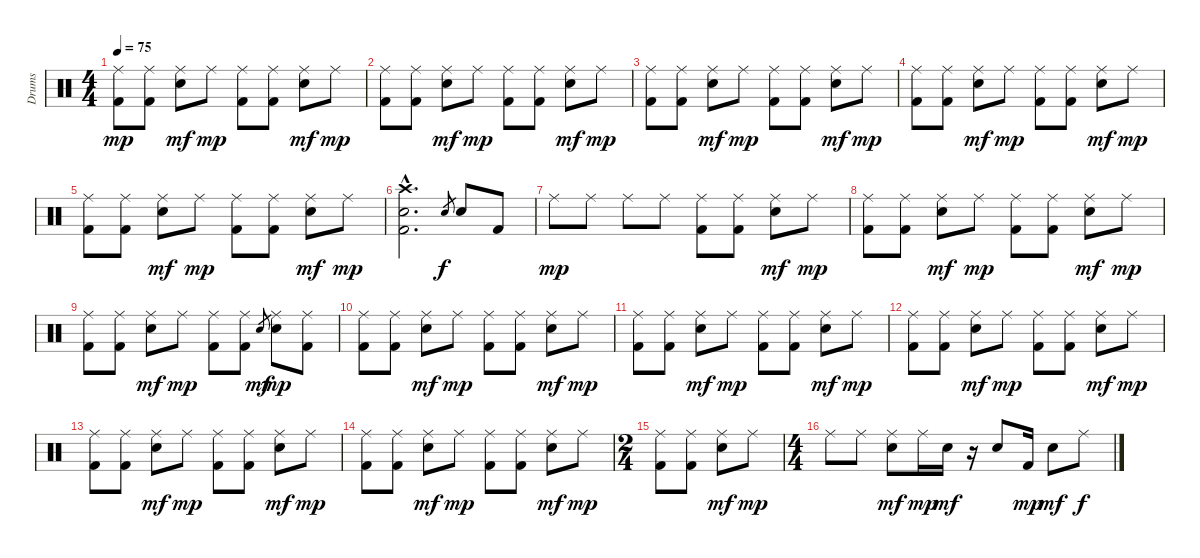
\track ("Drums" "Drums") {instrument percussion}
\staff {score}
\articulation defaults
\ts (4 4)
\tempo 75
\clef neutral
\ks c
("Ride (middle)" "Kick (hit) 2").8{dy mp} ("Ride (middle)" "Kick (hit) 2").8 ("Ride (middle)" "Electric Snare (hit)").8{dy mf} "Ride (middle)".8{dy mp} ("Ride (middle)" "Kick (hit) 2").8 ("Ride (middle)" "Kick (hit) 2").8 ("Ride (middle)" "Electric Snare (hit)").8{dy mf} "Ride (middle)".8{dy mp} |
("Ride (middle)" "Kick (hit) 2").8 ("Ride (middle)" "Kick (hit) 2").8 ("Ride (middle)" "Electric Snare (hit)").8{dy mf} "Ride (middle)".8{dy mp} ("Ride (middle)" "Kick (hit) 2").8 ("Ride (middle)" "Kick (hit) 2").8 ("Ride (middle)" "Electric Snare (hit)").8{dy mf} "Ride (middle)".8{dy mp} |
("Ride (middle)" "Kick (hit) 2").8 ("Ride (middle)" "Kick (hit) 2").8 ("Ride (middle)" "Electric Snare (hit)").8{dy mf} "Ride (middle)".8{dy mp} ("Ride (middle)" "Kick (hit) 2").8 ("Ride (middle)" "Kick (hit) 2").8 ("Ride (middle)" "Electric Snare (hit)").8{dy mf} "Ride (middle)".8{dy mp} |
("Ride (middle)" "Kick (hit) 2").8 ("Ride (middle)" "Kick (hit) 2").8 ("Ride (middle)" "Electric Snare (hit)").8{dy mf} "Ride (middle)".8{dy mp} ("Ride (middle)" "Kick (hit) 2").8 ("Ride (middle)" "Kick (hit) 2").8 ("Ride (middle)" "Electric Snare (hit)").8{dy mf} "Ride (middle)".8{dy mp} |
("Ride (middle)" "Kick (hit) 2").8 ("Ride (middle)" "Kick (hit) 2").8 ("Ride (middle)" "Electric Snare (hit)").8{dy mf} "Ride (middle)".8{dy mp} ("Ride (middle)" "Kick (hit) 2").8 ("Ride (middle)" "Kick (hit) 2").8 ("Ride (middle)" "Electric Snare (hit)").8{dy mf} "Ride (middle)".8{dy mp} |
("Crash high (hit)"{hac} "Electric Snare (hit)"{hac} "Kick (hit) 2"{hac}).2{d} "Electric Snare (hit)".8{gr dy f} "Electric Snare (hit)".8 "Kick (hit) 2".8 |
"Ride (middle)".8{dy mp} "Ride (middle)".8 "Ride (middle)".8 "Ride (middle)".8 ("Ride (middle)" "Kick (hit) 2").8 ("Ride (middle)" "Kick (hit) 2").8 ("Ride (middle)" "Electric Snare (hit)").8{dy mf} "Ride (middle)".8{dy mp} |
("Ride (middle)" "Kick (hit) 2").8 ("Ride (middle)" "Kick (hit) 2").8 ("Ride (middle)" "Electric Snare (hit)").8{dy mf} "Ride (middle)".8{dy mp} ("Ride (middle)" "Kick (hit) 2").8 ("Ride (middle)" "Kick (hit) 2").8 ("Ride (middle)" "Electric Snare (hit)").8{dy mf} "Ride (middle)".8{dy mp} |
("Ride (middle)" "Kick (hit) 2").8 ("Ride (middle)" "Kick (hit) 2").8 ("Ride (middle)" "Electric Snare (hit)").8{dy mf} "Ride (middle)".8{dy mp} ("Ride (middle)" "Kick (hit) 2").8 ("Ride (middle)" "Kick (hit) 2").8 "Electric Snare (hit)".8{gr dy mf} ("Ride (middle)" "Electric Snare (hit)").8{dy mp} ("Ride (middle)" "Kick (hit) 2").8 |
("Ride (middle)" "Kick (hit) 2").8 ("Ride (middle)" "Kick (hit) 2").8 ("Ride (middle)" "Electric Snare (hit)").8{dy mf} "Ride (middle)".8{dy mp} ("Ride (middle)" "Kick (hit) 2").8 ("Ride (middle)" "Kick (hit) 2").8 ("Ride (middle)" "Electric Snare (hit)").8{dy mf} "Ride (middle)".8{dy mp} |
("Ride (middle)" "Kick (hit) 2").8 ("Ride (middle)" "Kick (hit) 2").8 ("Ride (middle)" "Electric Snare (hit)").8{dy mf} "Ride (middle)".8{dy mp} ("Ride (middle)" "Kick (hit) 2").8 ("Ride (middle)" "Kick (hit) 2").8 ("Ride (middle)" "Electric Snare (hit)").8{dy mf} "Ride (middle)".8{dy mp} |
("Ride (middle)" "Kick (hit) 2").8 ("Ride (middle)" "Kick (hit) 2").8 ("Ride (middle)" "Electric Snare (hit)").8{dy mf} "Ride (middle)".8{dy mp} ("Ride (middle)" "Kick (hit) 2").8 ("Ride (middle)" "Kick (hit) 2").8 ("Ride (middle)" "Electric Snare (hit)").8{dy mf} "Ride (middle)".8{dy mp} |
("Ride (middle)" "Kick (hit) 2").8 ("Ride (middle)" "Kick (hit) 2").8 ("Ride (middle)" "Electric Snare (hit)").8{dy mf} "Ride (middle)".8{dy mp} ("Ride (middle)" "Kick (hit) 2").8 ("Ride (middle)" "Kick (hit) 2").8 ("Ride (middle)" "Electric Snare (hit)").8{dy mf} "Ride (middle)".8{dy mp} |
("Ride (middle)" "Kick (hit) 2").8 ("Ride (middle)" "Kick (hit) 2").8 ("Ride (middle)" "Electric Snare (hit)").8{dy mf} "Ride (middle)".8{dy mp} ("Ride (middle)" "Kick (hit) 2").8 ("Ride (middle)" "Kick (hit) 2").8 ("Ride (middle)" "Electric Snare (hit)").8{dy mf} "Ride (middle)".8{dy mp} |
\ts (2 4)
("Ride (middle)" "Kick (hit) 2").8 ("Ride (middle)" "Kick (hit) 2").8 ("Ride (middle)" "Electric Snare (hit)").8{dy mf} "Ride (middle)".8{dy mp} |
\ts (4 4)
"Ride (middle)".8 "Ride (middle)".8 ("Ride (middle)" "Electric Snare (hit)").8{dy mf} "Ride (middle)".16{dy mp} "Electric Snare (hit)".16{dy mf} r.16 "Electric Snare (hit)".8 "Kick (hit) 2".16{dy mp} "Electric Snare (hit)".8{dy mf} "Ride (middle)".8{dy f}
